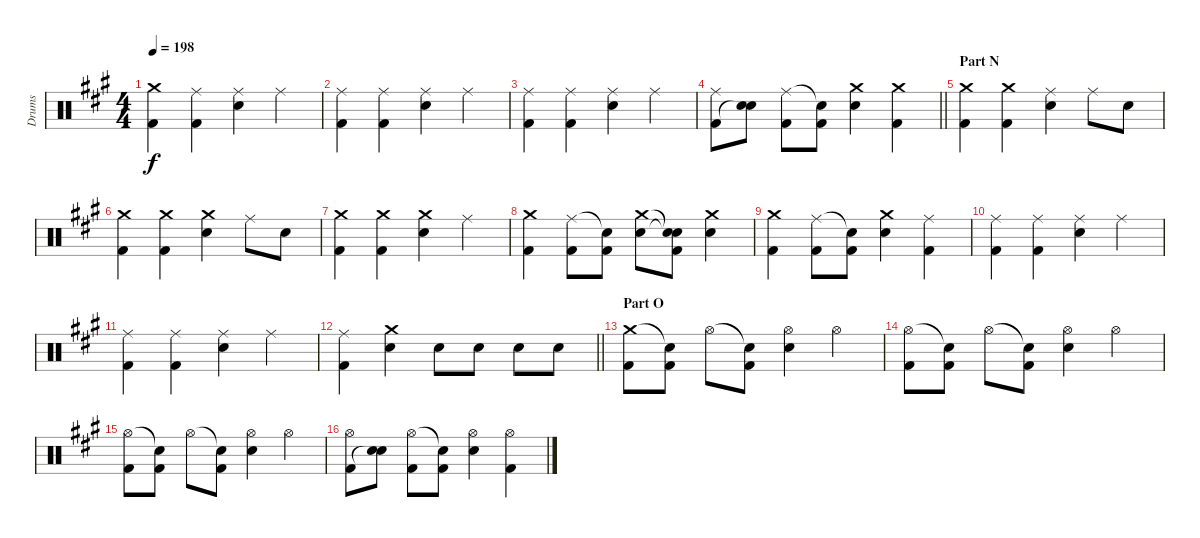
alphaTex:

\track ("Drums" "Drums") {instrument percussion}
\staff {score}
\articulation defaults
\ts (4 4)
\tempo 198
\clef neutral
\ks a
("Crash medium (hit)" "Kick (hit) 2").4{dy f} ("Ride (middle)" "Kick (hit) 2").4 ("Ride (middle)" "Electric Snare (hit)").4 "Ride (middle)".4 |
("Ride (middle)" "Kick (hit) 2").4 ("Ride (middle)" "Kick (hit) 2").4 ("Ride (middle)" "Electric Snare (hit)").4 "Ride (middle)".4 |
("Ride (middle)" "Kick (hit) 2").4 ("Ride (middle)" "Kick (hit) 2").4 ("Ride (middle)" "Electric Snare (hit)").4 "Ride (middle)".4 |
\barLineRight lightlight
("Ride (middle)" "Kick (hit) 2").8 ("Electric Snare (hit)" "Snare (hit)"{t}).8 ("Ride (middle)" "Kick (hit) 2").8 ("Snare (hit)"{t} "Kick (hit) 2").8 ("Crash medium (hit)" "Electric Snare (hit)").4 ("Crash medium (hit)" "Kick (hit) 2").4 |
\section ("" "Part N")
("Crash medium (hit)" "Kick (hit) 2").4 ("Crash medium (hit)" "Kick (hit) 2").4 ("Ride (middle)" "Electric Snare (hit)").4 "Ride (middle)".8 "Electric Snare (hit)".8 |
("Crash medium (hit)" "Kick (hit) 2").4 ("Crash medium (hit)" "Kick (hit) 2").4 ("Crash medium (hit)" "Electric Snare (hit)").4 "Ride (middle)".8 "Electric Snare (hit)".8 |
("Crash medium (hit)" "Kick (hit) 2").4 ("Crash medium (hit)" "Kick (hit) 2").4 ("Crash medium (hit)" "Electric Snare (hit)").4 "Ride (middle)".4 |
("Crash medium (hit)" "Kick (hit) 2").4 ("Ride (middle)" "Kick (hit) 2").8 ("Snare (hit)"{t} "Kick (hit) 2").8 ("Crash medium (hit)" "Electric Snare (hit)").8 ("Snare (hit)"{t} "Snare (hit)"{t} "Kick (hit) 2").8 ("Crash medium (hit)" "Electric Snare (hit)").4 |
("Crash medium (hit)" "Kick (hit) 2").4 ("Ride (middle)" "Kick (hit) 2").8 ("Snare (hit)"{t} "Kick (hit) 2").8 ("Crash medium (hit)" "Electric Snare (hit)").4 ("Ride (middle)" "Kick (hit) 2").4 |
("Ride (middle)" "Kick (hit) 2").4 ("Ride (middle)" "Kick (hit) 2").4 ("Ride (middle)" "Electric Snare (hit)").4 "Ride (middle)".4 |
("Ride (middle)" "Kick (hit) 2").4 ("Ride (middle)" "Kick (hit) 2").4 ("Ride (middle)" "Electric Snare (hit)").4 "Ride (middle)".4 |
\barLineRight lightlight
("Ride (middle)" "Kick (hit) 2").4 ("Crash medium (hit)" "Electric Snare (hit)").4 "Electric Snare (hit)".8 "Electric Snare (hit)".8 "Electric Snare (hit)".8 "Electric Snare (hit)".8 |
\section ("" "Part O")
("Crash medium (hit)" "Kick (hit) 2").8 ("Snare (hit)"{t} "Kick (hit) 2").8 "Hi-Hat (open)".8 ("Snare (hit)"{t} "Kick (hit) 2").8 ("Hi-Hat (open)" "Electric Snare (hit)").4 "Hi-Hat (open)".4 |
("Hi-Hat (open)" "Kick (hit) 2").8 ("Snare (hit)"{t} "Kick (hit) 2").8 "Hi-Hat (open)".8 ("Snare (hit)"{t} "Kick (hit) 2").8 ("Hi-Hat (open)" "Electric Snare (hit)").4 "Hi-Hat (open)".4 |
("Hi-Hat (open)" "Kick (hit) 2").8 ("Snare (hit)"{t} "Kick (hit) 2").8 "Hi-Hat (open)".8 ("Snare (hit)"{t} "Kick (hit) 2").8 ("Hi-Hat (open)" "Electric Snare (hit)").4 "Hi-Hat (open)".4 |
("Hi-Hat (open)" "Kick (hit) 2").8 ("Electric Snare (hit)" "Snare (hit)"{t}).8 ("Hi-Hat (open)" "Kick (hit) 2").8 ("Snare (hit)"{t} "Kick (hit) 2").8 ("Hi-Hat (open)" "Electric Snare (hit)").4 ("Hi-Hat (open)" "Kick (hit) 2").4
